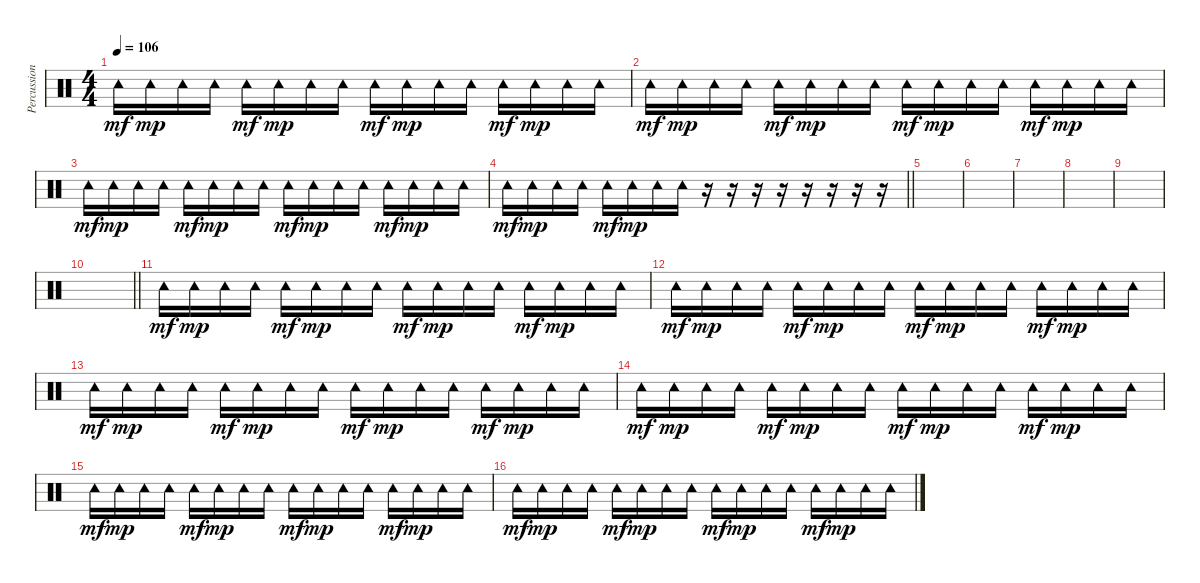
\track ("Percussion" "Percussion") {instrument percussion}
\staff {score}
\articulation defaults
\ts (4 4)
\tempo 106
\clef neutral
\ks c "Tambourine (hit)".16{dy mf} "Tambourine (hit)".16{dy mp} "Tambourine (hit)".16 "Tambourine (hit)".16 "Tambourine (hit)".16{dy mf} "Tambourine (hit)".16{dy mp} "Tambourine (hit)".16 "Tambourine (hit)".16 "Tambourine (hit)".16{dy mf} "Tambourine (hit)".16{dy mp} "Tambourine (hit)".16 "Tambourine (hit)".16 "Tambourine (hit)".16{dy mf} "Tambourine (hit)".16{dy mp} "Tambourine (hit)".16 "Tambourine (hit)".16
|
"Tambourine (hit)".16{dy mf} "Tambourine (hit)".16{dy mp} "Tambourine (hit)".16 "Tambourine (hit)".16 "Tambourine (hit)".16{dy mf} "Tambourine (hit)".16{dy mp} "Tambourine (hit)".16 "Tambourine (hit)".16 "Tambourine (hit)".16{dy mf} "Tambourine (hit)".16{dy mp} "Tambourine (hit)".16 "Tambourine (hit)".16 "Tambourine (hit)".16{dy mf} "Tambourine (hit)".16{dy mp} "Tambourine (hit)".16 "Tambourine (hit)".16 |
"Tambourine (hit)".16{dy mf} "Tambourine (hit)".16{dy mp} "Tambourine (hit)".16 "Tambourine (hit)".16 "Tambourine (hit)".16{dy mf} "Tambourine (hit)".16{dy mp} "Tambourine (hit)".16 "Tambourine (hit)".16 "Tambourine (hit)".16{dy mf} "Tambourine (hit)".16{dy mp} "Tambourine (hit)".16 "Tambourine (hit)".16 "Tambourine (hit)".16{dy mf} "Tambourine (hit)".16{dy mp} "Tambourine (hit)".16 "Tambourine (hit)".16 |
\barLineRight lightlight "Tambourine (hit)".16{dy mf} "Tambourine (hit)".16{dy mp} "Tambourine (hit)".16 "Tambourine (hit)".16 "Tambourine (hit)".16{dy mf} "Tambourine (hit)".16{dy mp} "Tambourine (hit)".16 "Tambourine (hit)".16
r.16 r.16 r.16 r.16 r.16 r.16 r.16 r.16 |
|
|
|
|
|
\barLineRight lightlight
|
"Tambourine (hit)".16{dy mf} "Tambourine (hit)".16{dy mp} "Tambourine (hit)".16 "Tambourine (hit)".16 "Tambourine (hit)".16{dy mf} "Tambourine (hit)".16{dy mp} "Tambourine (hit)".16 "Tambourine (hit)".16 "Tambourine (hit)".16{dy mf} "Tambourine (hit)".16{dy mp} "Tambourine (hit)".16 "Tambourine (hit)".16 "Tambourine (hit)".16{dy mf} "Tambourine (hit)".16{dy mp} "Tambourine (hit)".16 "Tambourine (hit)".16 |
"Tambourine (hit)".16{dy mf} "Tambourine (hit)".16{dy mp} "Tambourine (hit)".16 "Tambourine (hit)".16 "Tambourine (hit)".16{dy mf} "Tambourine (hit)".16{dy mp} "Tambourine (hit)".16 "Tambourine (hit)".16 "Tambourine (hit)".16{dy mf} "Tambourine (hit)".16{dy mp} "Tambourine (hit)".16 "Tambourine (hit)".16 "Tambourine (hit)".16{dy mf} "Tambourine (hit)".16{dy mp} "Tambourine (hit)".16 "Tambourine (hit)".16 |
"Tambourine (hit)".16{dy mf} "Tambourine (hit)".16{dy mp} "Tambourine (hit)".16 "Tambourine (hit)".16 "Tambourine (hit)".16{dy mf} "Tambourine (hit)".16{dy mp} "Tambourine (hit)".16 "Tambourine (hit)".16 "Tambourine (hit)".16{dy mf} "Tambourine (hit)".16{dy mp} "Tambourine (hit)".16 "Tambourine (hit)".16 "Tambourine (hit)".16{dy mf} "Tambourine (hit)".16{dy mp} "Tambourine (hit)".16 "Tambourine (hit)".16 |
"Tambourine (hit)".16{dy mf} "Tambourine (hit)".16{dy mp} "Tambourine (hit)".16 "Tambourine (hit)".16 "Tambourine (hit)".16{dy mf} "Tambourine (hit)".16{dy mp} "Tambourine (hit)".16 "Tambourine (hit)".16 "Tambourine (hit)".16{dy mf} "Tambourine (hit)".16{dy mp} "Tambourine (hit)".16 "Tambourine (hit)".16 "Tambourine (hit)".16{dy mf} "Tambourine (hit)".16{dy mp} "Tambourine (hit)".16 "Tambourine (hit)".16 |
"Tambourine (hit)".16{dy mf} "Tambourine (hit)".16{dy mp} "Tambourine (hit)".16 "Tambourine (hit)".16 "Tambourine (hit)".16{dy mf} "Tambourine (hit)".16{dy mp} "Tambourine (hit)".16 "Tambourine (hit)".16 "Tambourine (hit)".16{dy mf} "Tambourine (hit)".16{dy mp} "Tambourine (hit)".16 "Tambourine (hit)".16 "Tambourine (hit)".16{dy mf} "Tambourine (hit)".16{dy mp} "Tambourine (hit)".16 "Tambourine (hit)".16 |
"Tambourine (hit)".16{dy mf} "Tambourine (hit)".16{dy mp} "Tambourine (hit)".16 "Tambourine (hit)".16 "Tambourine (hit)".16{dy mf} "Tambourine (hit)".16{dy mp} "Tambourine (hit)".16 "Tambourine (hit)".16 "Tambourine (hit)".16{dy mf} "Tambourine (hit)".16{dy mp} "Tambourine (hit)".16 "Tambourine (hit)".16 "Tambourine (hit)".16{dy mf} "Tambourine (hit)".16{dy mp} "Tambourine (hit)".16 "Tambourine (hit)".16
